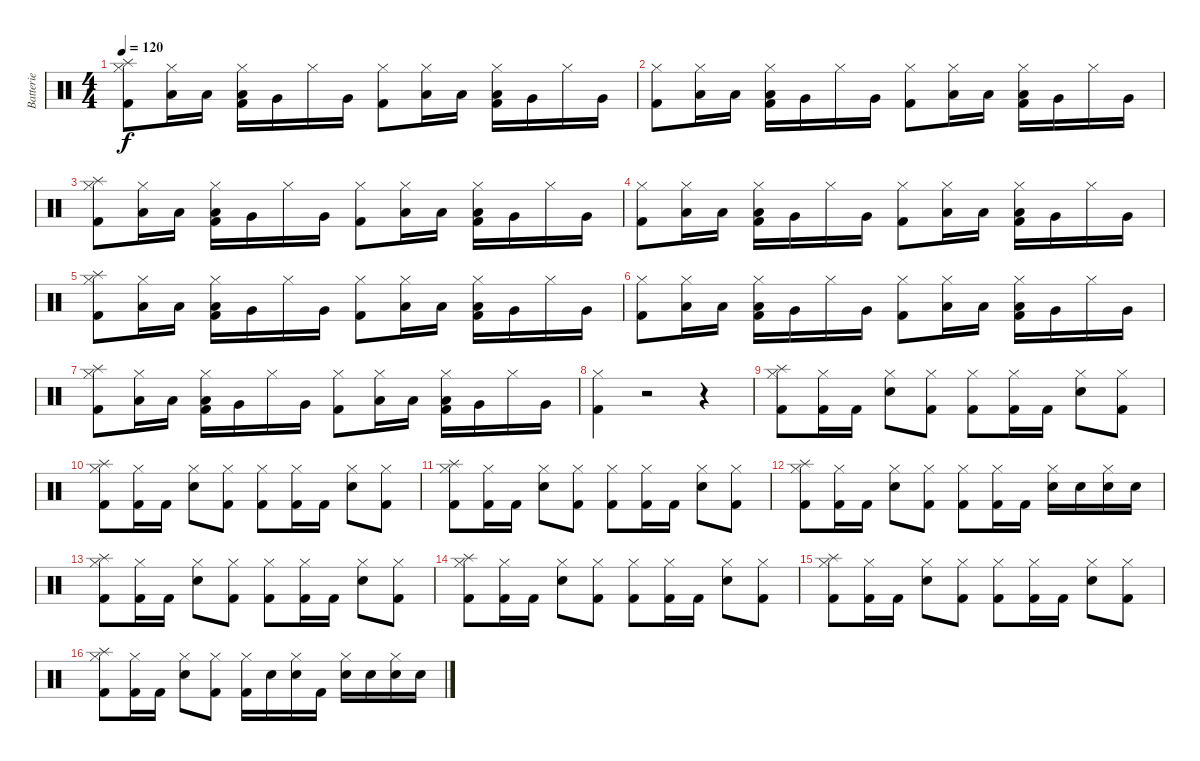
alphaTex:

\track ("Batterie" "Batterie") {instrument percussion}
\staff {score}
\articulation defaults
\ts (4 4)
\tempo 120
\clef neutral
\ks c
("Splash (hit)" "Hi-Hat (closed)" "Kick (hit) 2").8{dy f} ("Hi-Hat (closed)" "Low Tom (hit)").16 "Low Tom (hit)".16 ("Hi-Hat (closed)" "Low Tom (hit)" "Kick (hit) 2").16 "Very Low Tom (hit)".16 "Hi-Hat (closed)".16 "Very Low Tom (hit)".16 ("Hi-Hat (closed)" "Kick (hit) 2").8 ("Hi-Hat (closed)" "Low Tom (hit)").16 "Low Tom (hit)".16 ("Hi-Hat (closed)" "Low Tom (hit)" "Kick (hit) 2").16 "Very Low Tom (hit)".16 "Hi-Hat (closed)".16 "Very Low Tom (hit)".16 |
("Hi-Hat (closed)" "Kick (hit) 2").8 ("Hi-Hat (closed)" "Low Tom (hit)").16 "Low Tom (hit)".16 ("Hi-Hat (closed)" "Low Tom (hit)" "Kick (hit) 2").16 "Very Low Tom (hit)".16 "Hi-Hat (closed)".16 "Very Low Tom (hit)".16 ("Hi-Hat (closed)" "Kick (hit) 2").8 ("Hi-Hat (closed)" "Low Tom (hit)").16 "Low Tom (hit)".16 ("Hi-Hat (closed)" "Low Tom (hit)" "Kick (hit) 2").16 "Very Low Tom (hit)".16 "Hi-Hat (closed)".16 "Very Low Tom (hit)".16 |
("Splash (hit)" "Hi-Hat (closed)" "Kick (hit) 2").8 ("Hi-Hat (closed)" "Low Tom (hit)").16 "Low Tom (hit)".16 ("Hi-Hat (closed)" "Low Tom (hit)" "Kick (hit) 2").16 "Very Low Tom (hit)".16 "Hi-Hat (closed)".16 "Very Low Tom (hit)".16 ("Hi-Hat (closed)" "Kick (hit) 2").8 ("Hi-Hat (closed)" "Low Tom (hit)").16 "Low Tom (hit)".16 ("Hi-Hat (closed)" "Low Tom (hit)" "Kick (hit) 2").16 "Very Low Tom (hit)".16 "Hi-Hat (closed)".16 "Very Low Tom (hit)".16 |
("Hi-Hat (closed)" "Kick (hit) 2").8 ("Hi-Hat (closed)" "Low Tom (hit)").16 "Low Tom (hit)".16 ("Hi-Hat (closed)" "Low Tom (hit)" "Kick (hit) 2").16 "Very Low Tom (hit)".16 "Hi-Hat (closed)".16 "Very Low Tom (hit)".16 ("Hi-Hat (closed)" "Kick (hit) 2").8 ("Hi-Hat (closed)" "Low Tom (hit)").16 "Low Tom (hit)".16 ("Hi-Hat (closed)" "Low Tom (hit)" "Kick (hit) 2").16 "Very Low Tom (hit)".16 "Hi-Hat (closed)".16 "Very Low Tom (hit)".16 |
("Splash (hit)" "Hi-Hat (closed)" "Kick (hit) 2").8 ("Hi-Hat (closed)" "Low Tom (hit)").16 "Low Tom (hit)".16 ("Hi-Hat (closed)" "Low Tom (hit)" "Kick (hit) 2").16 "Very Low Tom (hit)".16 "Hi-Hat (closed)".16 "Very Low Tom (hit)".16 ("Hi-Hat (closed)" "Kick (hit) 2").8 ("Hi-Hat (closed)" "Low Tom (hit)").16 "Low Tom (hit)".16 ("Hi-Hat (closed)" "Low Tom (hit)" "Kick (hit) 2").16 "Very Low Tom (hit)".16 "Hi-Hat (closed)".16 "Very Low Tom (hit)".16 |
("Hi-Hat (closed)" "Kick (hit) 2").8 ("Hi-Hat (closed)" "Low Tom (hit)").16 "Low Tom (hit)".16 ("Hi-Hat (closed)" "Low Tom (hit)" "Kick (hit) 2").16 "Very Low Tom (hit)".16 "Hi-Hat (closed)".16 "Very Low Tom (hit)".16 ("Hi-Hat (closed)" "Kick (hit) 2").8 ("Hi-Hat (closed)" "Low Tom (hit)").16 "Low Tom (hit)".16 ("Hi-Hat (closed)" "Low Tom (hit)" "Kick (hit) 2").16 "Very Low Tom (hit)".16 "Hi-Hat (closed)".16 "Very Low Tom (hit)".16 |
("Splash (hit)" "Hi-Hat (closed)" "Kick (hit) 2").8 ("Hi-Hat (closed)" "Low Tom (hit)").16 "Low Tom (hit)".16 ("Hi-Hat (closed)" "Low Tom (hit)" "Kick (hit) 2").16 "Very Low Tom (hit)".16 "Hi-Hat (closed)".16 "Very Low Tom (hit)".16 ("Hi-Hat (closed)" "Kick (hit) 2").8 ("Hi-Hat (closed)" "Low Tom (hit)").16 "Low Tom (hit)".16 ("Hi-Hat (closed)" "Low Tom (hit)" "Kick (hit) 2").16 "Very Low Tom (hit)".16 "Hi-Hat (closed)".16 "Very Low Tom (hit)".16 |
("Hi-Hat (closed)" "Kick (hit) 2").4 r.2 r.4 |
("Splash (hit)" "Hi-Hat (closed)" "Kick (hit) 2").8 ("Hi-Hat (closed)" "Kick (hit) 2").16 "Kick (hit) 2".16 ("Hi-Hat (closed)" "Snare (hit) 2").8 ("Hi-Hat (closed)" "Kick (hit) 2").8 ("Hi-Hat (closed)" "Kick (hit) 2").8 ("Hi-Hat (closed)" "Kick (hit) 2").16 "Kick (hit) 2".16 ("Hi-Hat (closed)" "Snare (hit) 2").8 ("Hi-Hat (closed)" "Kick (hit) 2").8 |
("Splash (hit)" "Hi-Hat (closed)" "Kick (hit) 2").8 ("Hi-Hat (closed)" "Kick (hit) 2").16 "Kick (hit) 2".16 ("Hi-Hat (closed)" "Snare (hit) 2").8 ("Hi-Hat (closed)" "Kick (hit) 2").8 ("Hi-Hat (closed)" "Kick (hit) 2").8 ("Hi-Hat (closed)" "Kick (hit) 2").16 "Kick (hit) 2".16 ("Hi-Hat (closed)" "Snare (hit) 2").8 ("Hi-Hat (closed)" "Kick (hit) 2").8 |
("Splash (hit)" "Hi-Hat (closed)" "Kick (hit) 2").8 ("Hi-Hat (closed)" "Kick (hit) 2").16 "Kick (hit) 2".16 ("Hi-Hat (closed)" "Snare (hit) 2").8 ("Hi-Hat (closed)" "Kick (hit) 2").8 ("Hi-Hat (closed)" "Kick (hit) 2").8 ("Hi-Hat (closed)" "Kick (hit) 2").16 "Kick (hit) 2".16 ("Hi-Hat (closed)" "Snare (hit) 2").8 ("Hi-Hat (closed)" "Kick (hit) 2").8 |
("Splash (hit)" "Hi-Hat (closed)" "Kick (hit) 2").8 ("Hi-Hat (closed)" "Kick (hit) 2").16 "Kick (hit) 2".16 ("Hi-Hat (closed)" "Snare (hit) 2").8 ("Hi-Hat (closed)" "Kick (hit) 2").8 ("Hi-Hat (closed)" "Kick (hit) 2").8 ("Hi-Hat (closed)" "Kick (hit) 2").16 "Kick (hit) 2".16 ("Hi-Hat (closed)" "Snare (hit) 2").16 "Snare (hit) 2".16 ("Hi-Hat (closed)" "Snare (hit) 2").16 "Snare (hit) 2".16 |
("Splash (hit)" "Hi-Hat (closed)" "Kick (hit) 2").8 ("Hi-Hat (closed)" "Kick (hit) 2").16 "Kick (hit) 2".16 ("Hi-Hat (closed)" "Snare (hit) 2").8 ("Hi-Hat (closed)" "Kick (hit) 2").8 ("Hi-Hat (closed)" "Kick (hit) 2").8 ("Hi-Hat (closed)" "Kick (hit) 2").16 "Kick (hit) 2".16 ("Hi-Hat (closed)" "Snare (hit) 2").8 ("Hi-Hat (closed)" "Kick (hit) 2").8 |
("Splash (hit)" "Hi-Hat (closed)" "Kick (hit) 2").8 ("Hi-Hat (closed)" "Kick (hit) 2").16 "Kick (hit) 2".16 ("Hi-Hat (closed)" "Snare (hit) 2").8 ("Hi-Hat (closed)" "Kick (hit) 2").8 ("Hi-Hat (closed)" "Kick (hit) 2").8 ("Hi-Hat (closed)" "Kick (hit) 2").16 "Kick (hit) 2".16 ("Hi-Hat (closed)" "Snare (hit) 2").8 ("Hi-Hat (closed)" "Kick (hit) 2").8 |
("Splash (hit)" "Hi-Hat (closed)" "Kick (hit) 2").8 ("Hi-Hat (closed)" "Kick (hit) 2").16 "Kick (hit) 2".16 ("Hi-Hat (closed)" "Snare (hit) 2").8 ("Hi-Hat (closed)" "Kick (hit) 2").8 ("Hi-Hat (closed)" "Kick (hit) 2").8 ("Hi-Hat (closed)" "Kick (hit) 2").16 "Kick (hit) 2".16 ("Hi-Hat (closed)" "Snare (hit) 2").8 ("Hi-Hat (closed)" "Kick (hit) 2").8 |
("Splash (hit)" "Hi-Hat (closed)" "Kick (hit) 2").8 ("Hi-Hat (closed)" "Kick (hit) 2").16 "Kick (hit) 2".16 ("Hi-Hat (closed)" "Snare (hit) 2").8 ("Hi-Hat (closed)" "Kick (hit) 2").8 ("Hi-Hat (closed)" "Kick (hit) 2").16 "Snare (hit) 2".16 ("Hi-Hat (closed)" "Snare (hit) 2").16 "Kick (hit) 2".16 ("Hi-Hat (closed)" "Snare (hit) 2").16 "Snare (hit) 2".16 ("Hi-Hat (closed)" "Snare (hit) 2").16 "Snare (hit) 2".16
